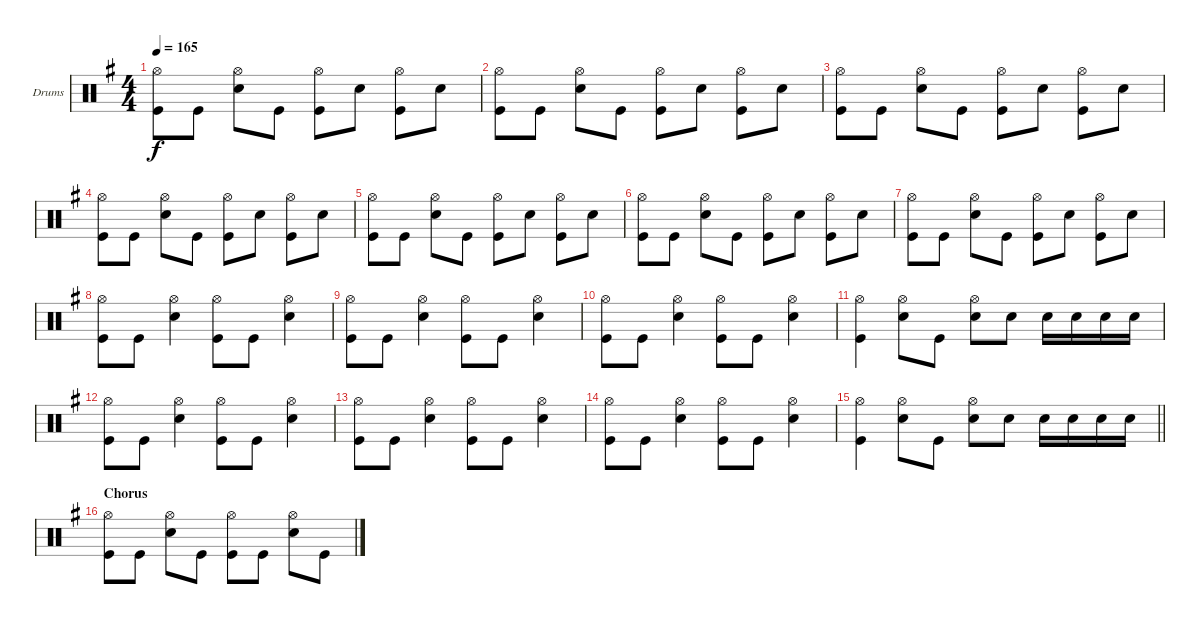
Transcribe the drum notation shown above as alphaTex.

\bracketExtendMode groupsimilarinstruments
\firstSystemTrackNameOrientation horizontal
\otherSystemsTrackNameOrientation horizontal
\track ("Drumkit" "Drums") {instrument percussion}
\staff {score}
\articulation defaults
\ts (4 4)
\tempo 165
\clef neutral
\ks eminor
("Hi-Hat (open)" "Kick (hit)").8{dy f} "Kick (hit)".8 ("Hi-Hat (open)" "Snare (hit) 2").8 "Kick (hit)".8 ("Hi-Hat (open)" "Kick (hit)").8 "Snare (hit) 2".8 ("Hi-Hat (open)" "Kick (hit)").8 "Snare (hit) 2".8 |
("Hi-Hat (open)" "Kick (hit)").8 "Kick (hit)".8 ("Hi-Hat (open)" "Snare (hit) 2").8 "Kick (hit)".8 ("Hi-Hat (open)" "Kick (hit)").8 "Snare (hit) 2".8 ("Hi-Hat (open)" "Kick (hit)").8 "Snare (hit) 2".8 |
("Hi-Hat (open)" "Kick (hit)").8 "Kick (hit)".8 ("Hi-Hat (open)" "Snare (hit) 2").8 "Kick (hit)".8 ("Hi-Hat (open)" "Kick (hit)").8 "Snare (hit) 2".8 ("Hi-Hat (open)" "Kick (hit)").8 "Snare (hit) 2".8 |
("Hi-Hat (open)" "Kick (hit)").8 "Kick (hit)".8 ("Hi-Hat (open)" "Snare (hit) 2").8 "Kick (hit)".8 ("Hi-Hat (open)" "Kick (hit)").8 "Snare (hit) 2".8 ("Hi-Hat (open)" "Kick (hit)").8 "Snare (hit) 2".8 |
("Hi-Hat (open)" "Kick (hit)").8 "Kick (hit)".8 ("Hi-Hat (open)" "Snare (hit) 2").8 "Kick (hit)".8 ("Hi-Hat (open)" "Kick (hit)").8 "Snare (hit) 2".8 ("Hi-Hat (open)" "Kick (hit)").8 "Snare (hit) 2".8 |
("Hi-Hat (open)" "Kick (hit)").8 "Kick (hit)".8 ("Hi-Hat (open)" "Snare (hit) 2").8 "Kick (hit)".8 ("Hi-Hat (open)" "Kick (hit)").8 "Snare (hit) 2".8 ("Hi-Hat (open)" "Kick (hit)").8 "Snare (hit) 2".8 |
("Hi-Hat (open)" "Kick (hit)").8 "Kick (hit)".8 ("Hi-Hat (open)" "Snare (hit) 2").8 "Kick (hit)".8 ("Hi-Hat (open)" "Kick (hit)").8 "Snare (hit) 2".8 ("Hi-Hat (open)" "Kick (hit)").8 "Snare (hit) 2".8 |
("Hi-Hat (open)" "Kick (hit)").8 "Kick (hit)".8 ("Hi-Hat (open)" "Snare (hit) 2").4 ("Hi-Hat (open)" "Kick (hit)").8 "Kick (hit)".8 ("Hi-Hat (open)" "Snare (hit) 2").4 |
("Hi-Hat (open)" "Kick (hit)").8 "Kick (hit)".8 ("Hi-Hat (open)" "Snare (hit) 2").4 ("Hi-Hat (open)" "Kick (hit)").8 "Kick (hit)".8 ("Hi-Hat (open)" "Snare (hit) 2").4 |
("Hi-Hat (open)" "Kick (hit)").8 "Kick (hit)".8 ("Hi-Hat (open)" "Snare (hit) 2").4 ("Hi-Hat (open)" "Kick (hit)").8 "Kick (hit)".8 ("Hi-Hat (open)" "Snare (hit) 2").4 |
("Hi-Hat (open)" "Kick (hit)").4 ("Hi-Hat (open)" "Snare (hit) 2").8 "Kick (hit)".8 ("Hi-Hat (open)" "Snare (hit) 2").8 "Snare (hit) 2".8 "Snare (hit) 2".16 "Snare (hit) 2".16 "Snare (hit) 2".16 "Snare (hit) 2".16 |
("Hi-Hat (open)" "Kick (hit)").8 "Kick (hit)".8 ("Hi-Hat (open)" "Snare (hit) 2").4 ("Hi-Hat (open)" "Kick (hit)").8 "Kick (hit)".8 ("Hi-Hat (open)" "Snare (hit) 2").4 |
("Hi-Hat (open)" "Kick (hit)").8 "Kick (hit)".8 ("Hi-Hat (open)" "Snare (hit) 2").4 ("Hi-Hat (open)" "Kick (hit)").8 "Kick (hit)".8 ("Hi-Hat (open)" "Snare (hit) 2").4 |
("Hi-Hat (open)" "Kick (hit)").8 "Kick (hit)".8 ("Hi-Hat (open)" "Snare (hit) 2").4 ("Hi-Hat (open)" "Kick (hit)").8 "Kick (hit)".8 ("Hi-Hat (open)" "Snare (hit) 2").4 |
\barLineRight lightlight
("Hi-Hat (open)" "Kick (hit)").4 ("Hi-Hat (open)" "Snare (hit) 2").8 "Kick (hit)".8 ("Hi-Hat (open)" "Snare (hit) 2").8 "Snare (hit) 2".8 "Snare (hit) 2".16 "Snare (hit) 2".16 "Snare (hit) 2".16 "Snare (hit) 2".16 |
\section ("" "Chorus")
("Hi-Hat (open)" "Kick (hit)").8 "Kick (hit)".8 ("Hi-Hat (open)" "Snare (hit) 2").8 "Kick (hit)".8 ("Hi-Hat (open)" "Kick (hit)").8 "Kick (hit)".8 ("Hi-Hat (open)" "Snare (hit) 2").8 "Kick (hit)".8
